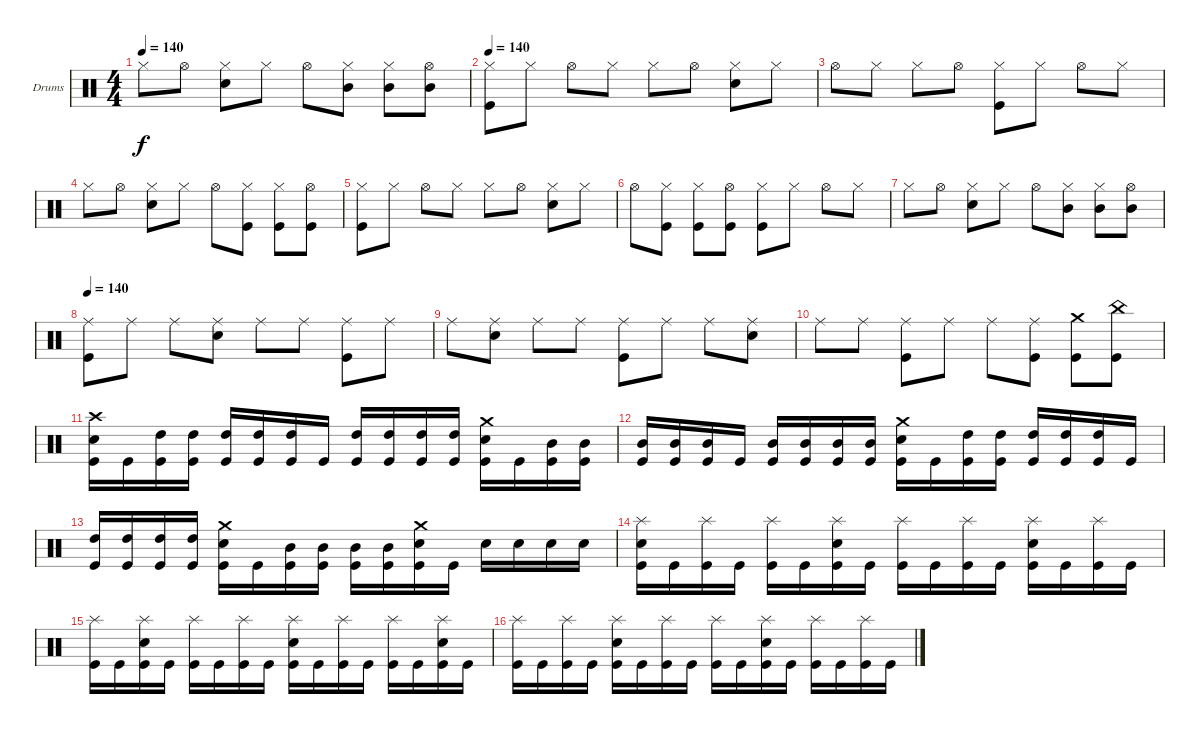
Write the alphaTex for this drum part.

\bracketExtendMode groupsimilarinstruments
\firstSystemTrackNameOrientation horizontal
\otherSystemsTrackNameOrientation horizontal
\track ("Drumkit" "Drums") {instrument percussion}
\staff {score}
\articulation defaults
\ts (4 4)
\tempo 140
\clef neutral
\ks c "Hi-Hat (closed)".8{dy f} "Hi-Hat (open)".8
("Snare (hit) 2" "Hi-Hat (closed)").8 "Hi-Hat (closed)".8 "Hi-Hat (open)".8 ("Mid Tom (hit)" "Hi-Hat (closed)").8 ("Mid Tom (hit)" "Hi-Hat (closed)").8 ("Mid Tom (hit)" "Hi-Hat (open)").8 |
\tempo 140
("Kick (hit)" "Hi-Hat (closed)").8 "Hi-Hat (closed)".8 "Hi-Hat (open)".8 "Hi-Hat (closed)".8 "Hi-Hat (closed)".8 "Hi-Hat (open)".8 ("Snare (hit) 2" "Hi-Hat (closed)").8 "Hi-Hat (closed)".8 |
"Hi-Hat (open)".8 "Hi-Hat (closed)".8 "Hi-Hat (closed)".8 "Hi-Hat (open)".8 ("Kick (hit)" "Hi-Hat (closed)").8 "Hi-Hat (closed)".8 "Hi-Hat (open)".8 "Hi-Hat (closed)".8 |
"Hi-Hat (closed)".8 "Hi-Hat (open)".8 ("Snare (hit) 2" "Hi-Hat (closed)").8 "Hi-Hat (closed)".8 "Hi-Hat (open)".8 ("Kick (hit)" "Hi-Hat (closed)").8 ("Kick (hit)" "Hi-Hat (closed)").8 ("Kick (hit)" "Hi-Hat (open)").8 |
("Kick (hit)" "Hi-Hat (closed)").8 "Hi-Hat (closed)".8 "Hi-Hat (open)".8 "Hi-Hat (closed)".8 "Hi-Hat (closed)".8 "Hi-Hat (open)".8 ("Snare (hit) 2" "Hi-Hat (closed)").8 "Hi-Hat (closed)".8 |
"Hi-Hat (open)".8 ("Kick (hit)" "Hi-Hat (closed)").8 ("Kick (hit)" "Hi-Hat (closed)").8 ("Kick (hit)" "Hi-Hat (open)").8 ("Kick (hit)" "Hi-Hat (closed)").8 "Hi-Hat (closed)".8 "Hi-Hat (open)".8 "Hi-Hat (closed)".8 |
"Hi-Hat (closed)".8 "Hi-Hat (open)".8 ("Snare (hit) 2" "Hi-Hat (closed)").8 "Hi-Hat (closed)".8 "Hi-Hat (open)".8 ("Mid Tom (hit)" "Hi-Hat (closed)").8 ("Mid Tom (hit)" "Hi-Hat (closed)").8 ("Mid Tom (hit)" "Hi-Hat (open)").8 |
\tempo 140
("Kick (hit)" "Ride (middle)").8 "Ride (middle)".8 "Ride (middle)".8 ("Snare (hit) 2" "Ride (middle)").8 "Ride (middle)".8 "Ride (middle)".8 ("Kick (hit)" "Ride (middle)").8 "Ride (middle)".8 |
"Ride (middle)".8 ("Snare (hit) 2" "Ride (middle)").8 "Ride (middle)".8 "Ride (middle)".8 ("Kick (hit)" "Ride (middle)").8 "Ride (middle)".8 "Ride (middle)".8 ("Snare (hit) 2" "Ride (middle)").8 |
"Ride (middle)".8 "Ride (middle)".8 ("Kick (hit)" "Ride (middle)").8 "Ride (middle)".8 "Ride (middle)".8 ("Kick (hit)" "Ride (middle)").8 ("Kick (hit)" "Crash medium (hit)").8 ("Kick (hit)" "China (hit)").8 |
("Kick (hit)" "Snare (hit) 2" "Crash high (hit)").16 "Kick (hit)".16 ("Kick (hit)" "High Tom (hit)").16 ("Kick (hit)" "High Tom (hit)").16 ("Kick (hit)" "High Tom (hit)").16 ("Kick (hit)" "High Tom (hit)").16 ("Kick (hit)" "High Tom (hit)").16 "Kick (hit)".16 ("Kick (hit)" "High Tom (hit)").16 ("Kick (hit)" "High Tom (hit)").16 ("Kick (hit)" "High Tom (hit)").16 ("Kick (hit)" "High Tom (hit)").16 ("Kick (hit)" "Snare (hit) 2" "Crash medium (hit)").16 "Kick (hit)".16 ("Kick (hit)" "Mid Tom (hit)").16 ("Kick (hit)" "Mid Tom (hit)").16 |
("Kick (hit)" "Mid Tom (hit)").16 ("Kick (hit)" "Mid Tom (hit)").16 ("Kick (hit)" "Mid Tom (hit)").16 "Kick (hit)".16 ("Kick (hit)" "Mid Tom (hit)").16 ("Kick (hit)" "Mid Tom (hit)").16 ("Kick (hit)" "Mid Tom (hit)").16 ("Kick (hit)" "Mid Tom (hit)").16 ("Kick (hit)" "Snare (hit) 2" "Crash medium (hit)").16 "Kick (hit)".16 ("Kick (hit)" "High Tom (hit)").16 ("Kick (hit)" "High Tom (hit)").16 ("Kick (hit)" "High Tom (hit)").16 ("Kick (hit)" "High Tom (hit)").16 ("Kick (hit)" "High Tom (hit)").16 "Kick (hit)".16 |
("Kick (hit)" "High Tom (hit)").16 ("Kick (hit)" "High Tom (hit)").16 ("Kick (hit)" "High Tom (hit)").16 ("Kick (hit)" "High Tom (hit)").16 ("Kick (hit)" "Snare (hit) 2" "Crash medium (hit)").16 "Kick (hit)".16 ("Kick (hit)" "Mid Tom (hit)").16 ("Kick (hit)" "Mid Tom (hit)").16 ("Kick (hit)" "Mid Tom (hit)").16 ("Kick (hit)" "Mid Tom (hit)").16 ("Kick (hit)" "Snare (hit) 2" "Crash medium (hit)").16 "Kick (hit)".16 "Snare (hit) 2".16 "Snare (hit) 2".16 "Snare (hit) 2".16 "Snare (hit) 2".16 |
("Kick (hit)" "Snare (hit) 2" "Splash (hit)").16 "Kick (hit)".16 ("Kick (hit)" "Splash (hit)").16 "Kick (hit)".16 ("Kick (hit)" "Splash (hit)").16 "Kick (hit)".16 ("Kick (hit)" "Snare (hit) 2" "Splash (hit)").16 "Kick (hit)".16 ("Kick (hit)" "Splash (hit)").16 "Kick (hit)".16 ("Kick (hit)" "Splash (hit)").16 "Kick (hit)".16 ("Kick (hit)" "Snare (hit) 2" "Splash (hit)").16 "Kick (hit)".16 ("Kick (hit)" "Splash (hit)").16 "Kick (hit)".16 |
("Kick (hit)" "Splash (hit)").16 "Kick (hit)".16 ("Kick (hit)" "Snare (hit) 2" "Splash (hit)").16 "Kick (hit)".16 ("Kick (hit)" "Splash (hit)").16 "Kick (hit)".16 ("Kick (hit)" "Splash (hit)").16 "Kick (hit)".16 ("Kick (hit)" "Snare (hit) 2" "Splash (hit)").16 "Kick (hit)".16 ("Kick (hit)" "Splash (hit)").16 "Kick (hit)".16 ("Kick (hit)" "Splash (hit)").16 "Kick (hit)".16 ("Kick (hit)" "Snare (hit) 2" "Splash (hit)").16 "Kick (hit)".16 |
("Kick (hit)" "Splash (hit)").16 "Kick (hit)".16 ("Kick (hit)" "Splash (hit)").16 "Kick (hit)".16 ("Kick (hit)" "Snare (hit) 2" "Splash (hit)").16 "Kick (hit)".16 ("Kick (hit)" "Splash (hit)").16 "Kick (hit)".16 ("Kick (hit)" "Splash (hit)").16 "Kick (hit)".16 ("Kick (hit)" "Snare (hit) 2" "Splash (hit)").16 "Kick (hit)".16 ("Kick (hit)" "Splash (hit)").16 "Kick (hit)".16 ("Kick (hit)" "Splash (hit)").16 "Kick (hit)".16
